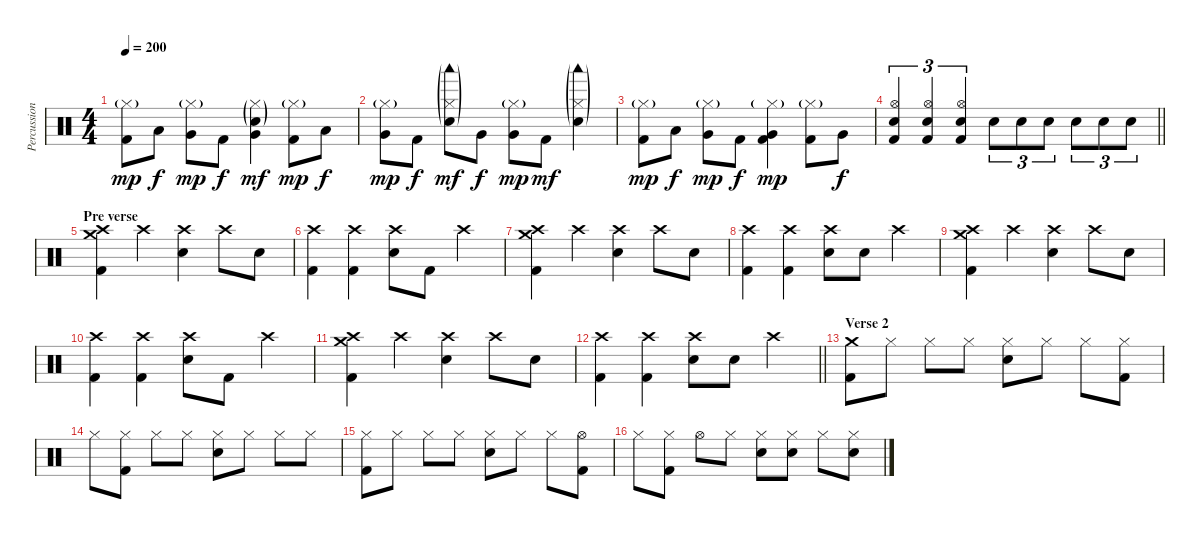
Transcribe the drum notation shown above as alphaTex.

\track ("Percussion" "Percussion") {instrument percussion}
\staff {score}
\articulation defaults
\ts (4 4)
\tempo 200
\clef neutral
\ks c
("Hi-Hat (closed)"{g} "Kick (hit) 2").8{dy mp} "Low Tom (hit)".8{dy f} ("Hi-Hat (closed)"{g} "Very Low Tom (hit)").8{dy mp} "Kick (hit) 2".8{dy f} ("Hi-Hat (closed)"{g} "Very Low Tom (hit)" "Snare (hit) 2"{g}).4{dy mf} ("Hi-Hat (closed)"{g} "Kick (hit) 2").8{dy mp} "Low Tom (hit)".8{dy f} |
("Hi-Hat (closed)"{g} "Very Low Tom (hit)").8{dy mp} "Kick (hit) 2".8{dy f} ("Hi-Hat (closed)"{g} "Snare (hit) 2"{g} "Woodblock low (hit)"{g}).8{dy mf} "Very Low Tom (hit)".8{dy f} ("Hi-Hat (closed)"{g} "Very Low Tom (hit)").8{dy mp} "Kick (hit) 2".8{dy mf} ("Hi-Hat (closed)"{g} "Snare (hit) 2"{g} "Woodblock low (hit)"{g}).4 |
("Hi-Hat (closed)"{g} "Kick (hit) 2").8{dy mp} "Low Tom (hit)".8{dy f} ("Hi-Hat (closed)"{g} "Very Low Tom (hit)").8{dy mp} "Kick (hit) 2".8{dy f} ("Hi-Hat (closed)"{g} "Very Low Tom (hit)" "Kick (hit) 2").4{dy mp} ("Hi-Hat (closed)"{g} "Kick (hit) 2").8 "Very Low Tom (hit)".8{dy f} |
\barLineRight lightlight
("Hi-Hat (open)" "Electric Snare (hit)" "Kick (hit) 2").4{tu (3 2)} ("Hi-Hat (open)" "Electric Snare (hit)" "Kick (hit) 2").4{tu (3 2)} ("Hi-Hat (open)" "Electric Snare (hit)" "Kick (hit) 2").4{tu (3 2)} "Electric Snare (hit)".8{tu (3 2)} "Electric Snare (hit)".8{tu (3 2)} "Electric Snare (hit)".8{tu (3 2)} "Electric Snare (hit)".8{tu (3 2)} "Electric Snare (hit)".8{tu (3 2)} "Electric Snare (hit)".8{tu (3 2)} |
\section ("" "Pre verse")
("Crash medium (hit)" "Crash high (hit)" "Kick (hit) 2").4 "Crash high (hit)".4 ("Crash high (hit)" "Electric Snare (hit)").4 "Crash high (hit)".8 "Electric Snare (hit)".8 |
("Crash high (hit)" "Kick (hit) 2").4 ("Crash high (hit)" "Kick (hit) 2").4 ("Crash high (hit)" "Electric Snare (hit)").8 "Kick (hit) 2".8 "Crash high (hit)".4 |
("Crash medium (hit)" "Crash high (hit)" "Kick (hit) 2").4 "Crash high (hit)".4 ("Crash high (hit)" "Electric Snare (hit)").4 "Crash high (hit)".8 "Electric Snare (hit)".8 |
("Crash high (hit)" "Kick (hit) 2").4 ("Crash high (hit)" "Kick (hit) 2").4 ("Crash high (hit)" "Electric Snare (hit)").8 "Electric Snare (hit)".8 "Crash high (hit)".4 |
("Crash medium (hit)" "Crash high (hit)" "Kick (hit) 2").4 "Crash high (hit)".4 ("Crash high (hit)" "Electric Snare (hit)").4 "Crash high (hit)".8 "Electric Snare (hit)".8 |
("Crash high (hit)" "Kick (hit) 2").4 ("Crash high (hit)" "Kick (hit) 2").4 ("Crash high (hit)" "Electric Snare (hit)").8 "Kick (hit) 2".8 "Crash high (hit)".4 |
("Crash medium (hit)" "Crash high (hit)" "Kick (hit) 2").4 "Crash high (hit)".4 ("Crash high (hit)" "Electric Snare (hit)").4 "Crash high (hit)".8 "Electric Snare (hit)".8 |
\barLineRight lightlight
("Crash high (hit)" "Kick (hit) 2").4 ("Crash high (hit)" "Kick (hit) 2").4 ("Crash high (hit)" "Electric Snare (hit)").8 "Electric Snare (hit)".8 "Crash high (hit)".4 |
\section ("" "Verse 2")
("Crash medium (hit)" "Kick (hit) 2").8 "Hi-Hat (closed)".8 "Hi-Hat (closed)".8 "Hi-Hat (closed)".8 ("Hi-Hat (closed)" "Electric Snare (hit)").8 "Hi-Hat (closed)".8 "Hi-Hat (closed)".8 ("Hi-Hat (closed)" "Kick (hit) 2").8 |
"Hi-Hat (closed)".8 ("Hi-Hat (closed)" "Kick (hit) 2").8 "Hi-Hat (closed)".8 "Hi-Hat (closed)".8 ("Hi-Hat (closed)" "Electric Snare (hit)").8 "Hi-Hat (closed)".8 "Hi-Hat (closed)".8 "Hi-Hat (closed)".8 |
("Hi-Hat (closed)" "Kick (hit) 2").8 "Hi-Hat (closed)".8 "Hi-Hat (closed)".8 "Hi-Hat (closed)".8 ("Hi-Hat (closed)" "Electric Snare (hit)").8 "Hi-Hat (closed)".8 "Hi-Hat (closed)".8 ("Hi-Hat (open)" "Kick (hit) 2").8 |
"Hi-Hat (closed)".8 ("Hi-Hat (closed)" "Kick (hit) 2").8 "Hi-Hat (open)".8 "Hi-Hat (closed)".8 ("Hi-Hat (closed)" "Electric Snare (hit)").8 ("Hi-Hat (closed)" "Electric Snare (hit)").8 "Hi-Hat (closed)".8 ("Hi-Hat (closed)" "Electric Snare (hit)").8
